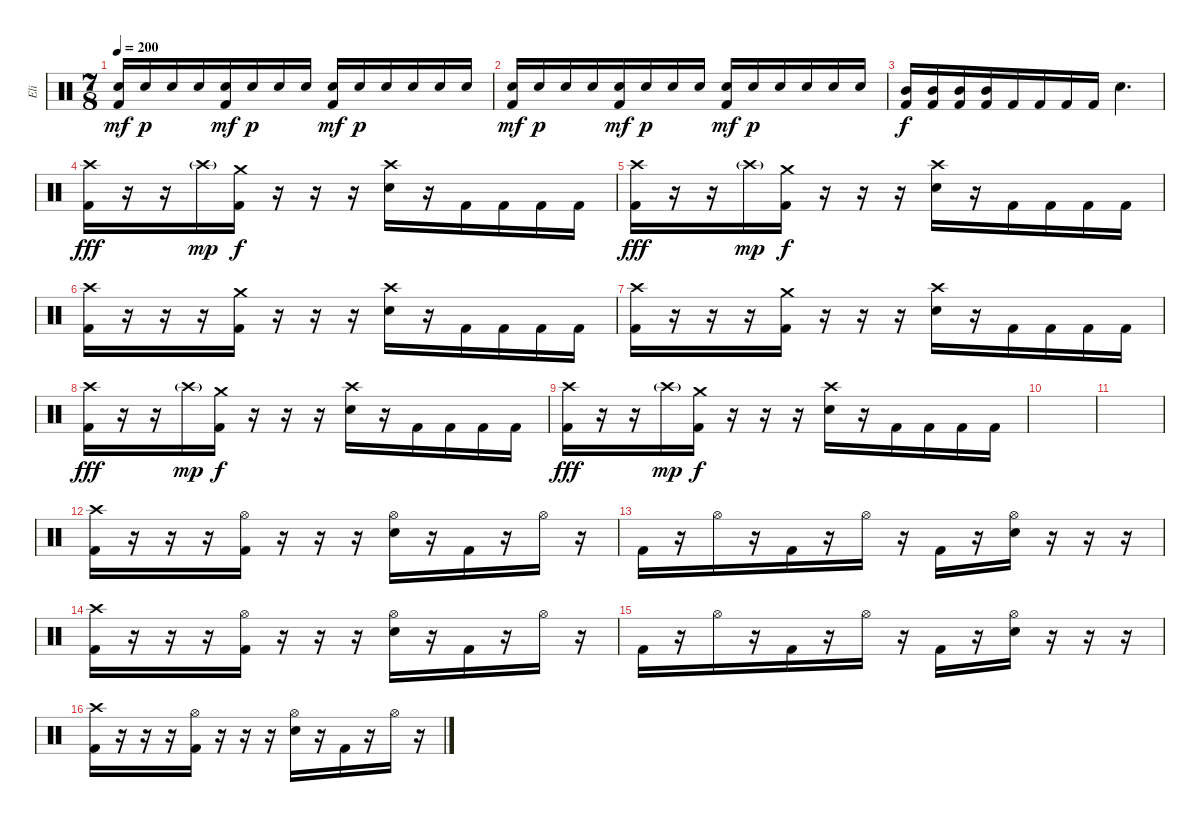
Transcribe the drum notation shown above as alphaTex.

\track ("Eli" "Eli") {instrument percussion}
\staff {score}
\articulation defaults
\ts (7 8)
\tempo 200
\clef neutral
\ks c
("Snare (hit) 2" "Kick (hit) 2").16{dy mf} "Snare (hit) 2".16{dy p} "Snare (hit) 2".16 "Snare (hit) 2".16 ("Snare (hit) 2" "Kick (hit) 2").16{dy mf} "Snare (hit) 2".16{dy p} "Snare (hit) 2".16 "Snare (hit) 2".16 ("Snare (hit) 2" "Kick (hit) 2").16{dy mf} "Snare (hit) 2".16{dy p} "Snare (hit) 2".16 "Snare (hit) 2".16 "Snare (hit) 2".16 "Snare (hit) 2".16 |
("Snare (hit) 2" "Kick (hit) 2").16{dy mf} "Snare (hit) 2".16{dy p} "Snare (hit) 2".16 "Snare (hit) 2".16 ("Snare (hit) 2" "Kick (hit) 2").16{dy mf} "Snare (hit) 2".16{dy p} "Snare (hit) 2".16 "Snare (hit) 2".16 ("Snare (hit) 2" "Kick (hit) 2").16{dy mf} "Snare (hit) 2".16{dy p} "Snare (hit) 2".16 "Snare (hit) 2".16 "Snare (hit) 2".16 "Snare (hit) 2".16 |
("Mid Tom (hit)" "Kick (hit) 2").16{dy f} ("Mid Tom (hit)" "Kick (hit) 2").16 ("Mid Tom (hit)" "Kick (hit) 2").16 ("Mid Tom (hit)" "Kick (hit) 2").16 "Kick (hit) 2".16 "Kick (hit) 2".16 "Kick (hit) 2".16 "Kick (hit) 2".16 "Snare (hit) 2".4{d} |
("Crash high (hit)" "Kick (hit) 2").16{dy fff} r.16 r.16 "Crash high (hit)"{g}.16{dy mp} ("Crash medium (hit)" "Kick (hit) 2").16{dy f} r.16 r.16 r.16 ("Crash high (hit)" "Snare (hit) 2").16 r.16 "Kick (hit) 2".16 "Kick (hit) 2".16 "Kick (hit) 2".16 "Kick (hit) 2".16 |
("Crash high (hit)" "Kick (hit) 2").16{dy fff} r.16 r.16 "Crash high (hit)"{g}.16{dy mp} ("Crash medium (hit)" "Kick (hit) 2").16{dy f} r.16 r.16 r.16 ("Crash high (hit)" "Snare (hit) 2").16 r.16 "Kick (hit) 2".16 "Kick (hit) 2".16 "Kick (hit) 2".16 "Kick (hit) 2".16 |
("Crash high (hit)" "Kick (hit) 2").16 r.16 r.16 r.16 ("Crash medium (hit)" "Kick (hit) 2").16 r.16 r.16 r.16 ("Crash high (hit)" "Snare (hit) 2").16 r.16 "Kick (hit) 2".16 "Kick (hit) 2".16 "Kick (hit) 2".16 "Kick (hit) 2".16 |
("Crash high (hit)" "Kick (hit) 2").16 r.16 r.16 r.16 ("Crash medium (hit)" "Kick (hit) 2").16 r.16 r.16 r.16 ("Crash high (hit)" "Snare (hit) 2").16 r.16 "Kick (hit) 2".16 "Kick (hit) 2".16 "Kick (hit) 2".16 "Kick (hit) 2".16 |
("Crash high (hit)" "Kick (hit) 2").16{dy fff} r.16 r.16 "Crash high (hit)"{g}.16{dy mp} ("Crash medium (hit)" "Kick (hit) 2").16{dy f} r.16 r.16 r.16 ("Crash high (hit)" "Snare (hit) 2").16 r.16 "Kick (hit) 2".16 "Kick (hit) 2".16 "Kick (hit) 2".16 "Kick (hit) 2".16 |
("Crash high (hit)" "Kick (hit) 2").16{dy fff} r.16 r.16 "Crash high (hit)"{g}.16{dy mp} ("Crash medium (hit)" "Kick (hit) 2").16{dy f} r.16 r.16 r.16 ("Crash high (hit)" "Snare (hit) 2").16 r.16 "Kick (hit) 2".16 "Kick (hit) 2".16 "Kick (hit) 2".16 "Kick (hit) 2".16 |
|
|
("Crash high (hit)" "Kick (hit) 2").16 r.16 r.16 r.16 ("Hi-Hat (open)" "Kick (hit) 2").16 r.16 r.16 r.16 ("Hi-Hat (open)" "Snare (hit) 2").16 r.16 "Kick (hit) 2".16 r.16 "Hi-Hat (open)".16 r.16 |
"Kick (hit) 2".16 r.16 "Hi-Hat (open)".16 r.16 "Kick (hit) 2".16 r.16 "Hi-Hat (open)".16 r.16 "Kick (hit) 2".16 r.16 ("Hi-Hat (open)" "Snare (hit) 2").16 r.16 r.16 r.16 |
("Crash high (hit)" "Kick (hit) 2").16 r.16 r.16 r.16 ("Hi-Hat (open)" "Kick (hit) 2").16 r.16 r.16 r.16 ("Hi-Hat (open)" "Snare (hit) 2").16 r.16 "Kick (hit) 2".16 r.16 "Hi-Hat (open)".16 r.16 |
"Kick (hit) 2".16 r.16 "Hi-Hat (open)".16 r.16 "Kick (hit) 2".16 r.16 "Hi-Hat (open)".16 r.16 "Kick (hit) 2".16 r.16 ("Hi-Hat (open)" "Snare (hit) 2").16 r.16 r.16 r.16 |
("Crash high (hit)" "Kick (hit) 2").16 r.16 r.16 r.16 ("Hi-Hat (open)" "Kick (hit) 2").16 r.16 r.16 r.16 ("Hi-Hat (open)" "Snare (hit) 2").16 r.16 "Kick (hit) 2".16 r.16 "Hi-Hat (open)".16 r.16
